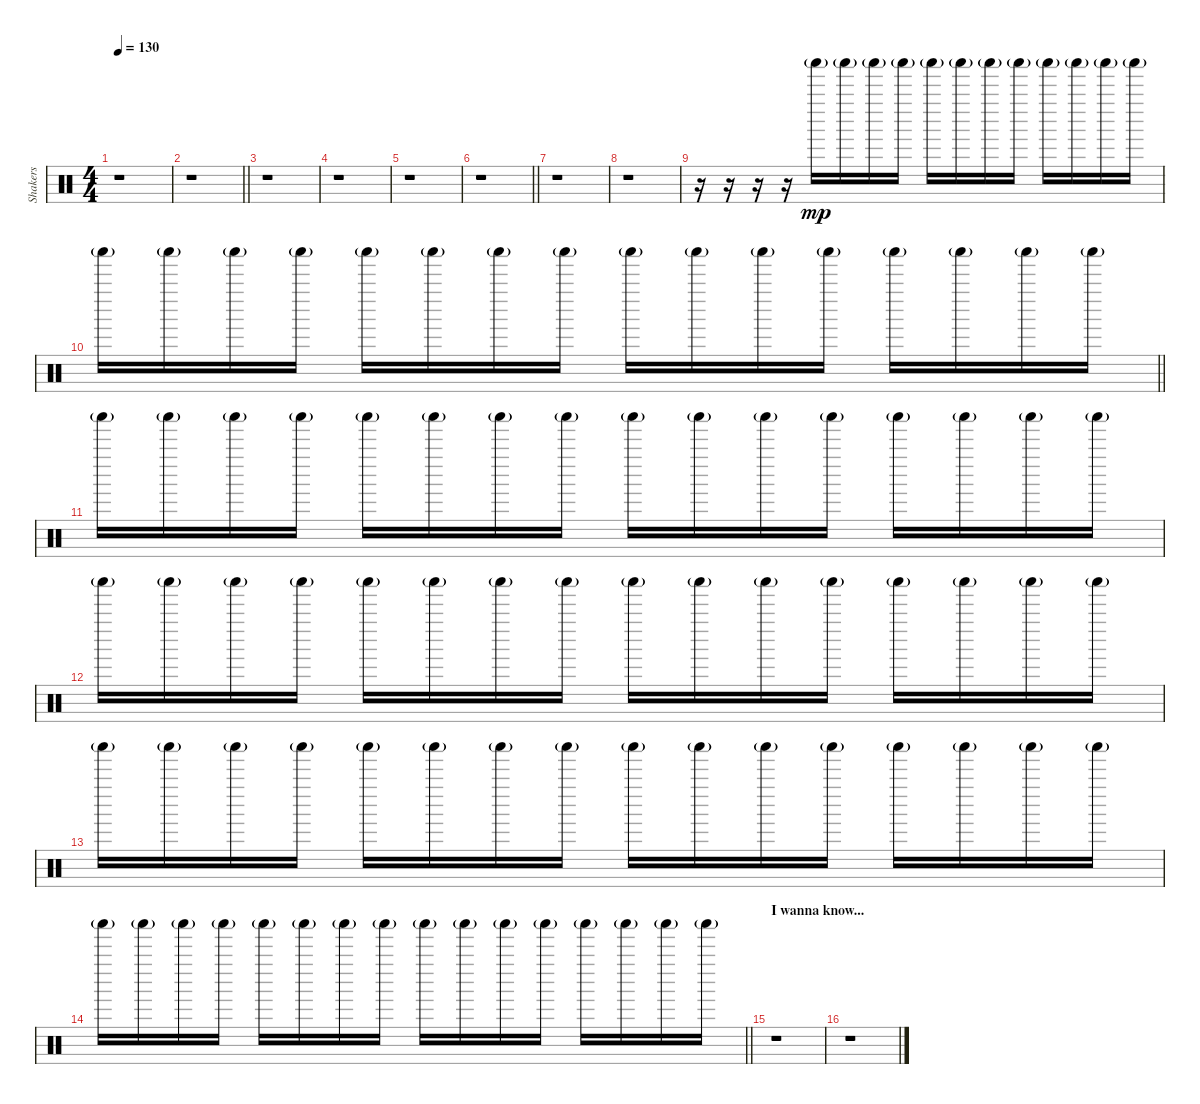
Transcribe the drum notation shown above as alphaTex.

\track ("Shakers" "Shakers") {instrument percussion}
\staff {score}
\articulation defaults
\ts (4 4)
\tempo 130
\clef neutral
\ks c
r.1{dy mp} |
\barLineRight lightlight
r.1 |
r.1 |
r.1 |
r.1 |
\barLineRight lightlight
r.1 |
r.1 |
r.1 |
r.16 r.16 r.16 r.16 "Shaker (hit)"{g}.16 "Shaker (hit)"{g}.16 "Shaker (hit)"{g}.16 "Shaker (hit)"{g}.16 "Shaker (hit)"{g}.16 "Shaker (hit)"{g}.16 "Shaker (hit)"{g}.16 "Shaker (hit)"{g}.16 "Shaker (hit)"{g}.16 "Shaker (hit)"{g}.16 "Shaker (hit)"{g}.16 "Shaker (hit)"{g}.16 |
\barLineRight lightlight "Shaker (hit)"{g}.16 "Shaker (hit)"{g}.16 "Shaker (hit)"{g}.16 "Shaker (hit)"{g}.16 "Shaker (hit)"{g}.16 "Shaker (hit)"{g}.16 "Shaker (hit)"{g}.16 "Shaker (hit)"{g}.16 "Shaker (hit)"{g}.16 "Shaker (hit)"{g}.16 "Shaker (hit)"{g}.16 "Shaker (hit)"{g}.16 "Shaker (hit)"{g}.16 "Shaker (hit)"{g}.16 "Shaker (hit)"{g}.16 "Shaker (hit)"{g}.16
|
"Shaker (hit)"{g}.16 "Shaker (hit)"{g}.16 "Shaker (hit)"{g}.16 "Shaker (hit)"{g}.16 "Shaker (hit)"{g}.16 "Shaker (hit)"{g}.16 "Shaker (hit)"{g}.16 "Shaker (hit)"{g}.16 "Shaker (hit)"{g}.16 "Shaker (hit)"{g}.16 "Shaker (hit)"{g}.16 "Shaker (hit)"{g}.16 "Shaker (hit)"{g}.16 "Shaker (hit)"{g}.16 "Shaker (hit)"{g}.16 "Shaker (hit)"{g}.16 |
"Shaker (hit)"{g}.16 "Shaker (hit)"{g}.16 "Shaker (hit)"{g}.16 "Shaker (hit)"{g}.16 "Shaker (hit)"{g}.16 "Shaker (hit)"{g}.16 "Shaker (hit)"{g}.16 "Shaker (hit)"{g}.16 "Shaker (hit)"{g}.16 "Shaker (hit)"{g}.16 "Shaker (hit)"{g}.16 "Shaker (hit)"{g}.16 "Shaker (hit)"{g}.16 "Shaker (hit)"{g}.16 "Shaker (hit)"{g}.16 "Shaker (hit)"{g}.16 |
"Shaker (hit)"{g}.16 "Shaker (hit)"{g}.16 "Shaker (hit)"{g}.16 "Shaker (hit)"{g}.16 "Shaker (hit)"{g}.16 "Shaker (hit)"{g}.16 "Shaker (hit)"{g}.16 "Shaker (hit)"{g}.16 "Shaker (hit)"{g}.16 "Shaker (hit)"{g}.16 "Shaker (hit)"{g}.16 "Shaker (hit)"{g}.16 "Shaker (hit)"{g}.16 "Shaker (hit)"{g}.16 "Shaker (hit)"{g}.16 "Shaker (hit)"{g}.16 |
\barLineRight lightlight "Shaker (hit)"{g}.16 "Shaker (hit)"{g}.16 "Shaker (hit)"{g}.16 "Shaker (hit)"{g}.16 "Shaker (hit)"{g}.16 "Shaker (hit)"{g}.16 "Shaker (hit)"{g}.16 "Shaker (hit)"{g}.16 "Shaker (hit)"{g}.16 "Shaker (hit)"{g}.16 "Shaker (hit)"{g}.16 "Shaker (hit)"{g}.16 "Shaker (hit)"{g}.16 "Shaker (hit)"{g}.16 "Shaker (hit)"{g}.16 "Shaker (hit)"{g}.16
|
\section ("" "I wanna know...")
r.1 |
r.1
